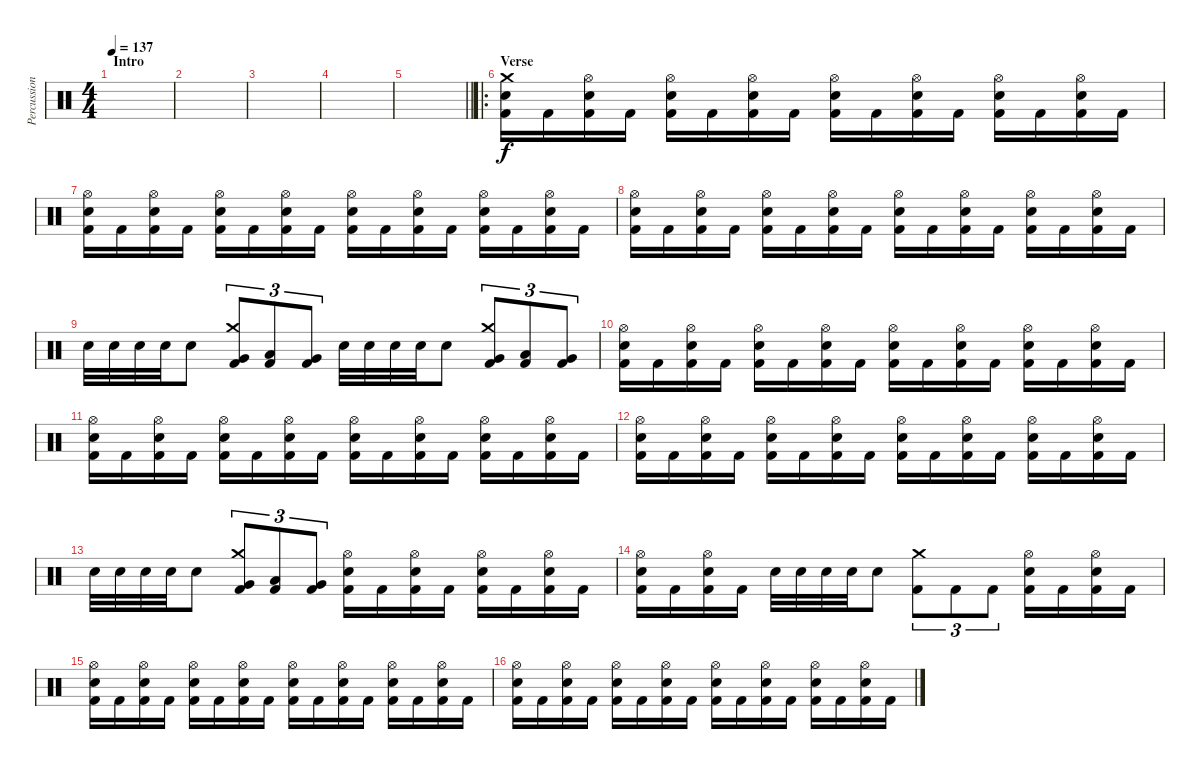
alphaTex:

\track ("Percussion" "Percussion") {instrument percussion}
\staff {score}
\articulation defaults
\ts (4 4)
\section ("" "Intro")
\tempo 137
\clef neutral
\ks c
|
|
|
|
\barLineRight lightlight
|
\ro
\section ("" "Verse")
("Kick (hit) 2" "Snare (hit) 2" "Crash medium (hit)").16{volume 12} "Kick (hit) 2".16 ("Kick (hit) 2" "Hi-Hat (open)" "Snare (hit) 2").16 "Kick (hit) 2".16 ("Kick (hit) 2" "Hi-Hat (open)" "Snare (hit) 2").16 "Kick (hit) 2".16 ("Kick (hit) 2" "Hi-Hat (open)" "Snare (hit) 2").16 "Kick (hit) 2".16 ("Kick (hit) 2" "Hi-Hat (open)" "Snare (hit) 2").16 "Kick (hit) 2".16 ("Kick (hit) 2" "Hi-Hat (open)" "Snare (hit) 2").16 "Kick (hit) 2".16 ("Kick (hit) 2" "Hi-Hat (open)" "Snare (hit) 2").16 "Kick (hit) 2".16 ("Kick (hit) 2" "Hi-Hat (open)" "Snare (hit) 2").16 "Kick (hit) 2".16 |
("Kick (hit) 2" "Hi-Hat (open)" "Snare (hit) 2").16 "Kick (hit) 2".16 ("Kick (hit) 2" "Hi-Hat (open)" "Snare (hit) 2").16 "Kick (hit) 2".16 ("Kick (hit) 2" "Hi-Hat (open)" "Snare (hit) 2").16 "Kick (hit) 2".16 ("Kick (hit) 2" "Hi-Hat (open)" "Snare (hit) 2").16 "Kick (hit) 2".16 ("Kick (hit) 2" "Hi-Hat (open)" "Snare (hit) 2").16 "Kick (hit) 2".16 ("Kick (hit) 2" "Hi-Hat (open)" "Snare (hit) 2").16 "Kick (hit) 2".16 ("Kick (hit) 2" "Hi-Hat (open)" "Snare (hit) 2").16 "Kick (hit) 2".16 ("Kick (hit) 2" "Hi-Hat (open)" "Snare (hit) 2").16 "Kick (hit) 2".16 |
("Kick (hit) 2" "Hi-Hat (open)" "Snare (hit) 2").16 "Kick (hit) 2".16 ("Kick (hit) 2" "Hi-Hat (open)" "Snare (hit) 2").16 "Kick (hit) 2".16 ("Kick (hit) 2" "Hi-Hat (open)" "Snare (hit) 2").16 "Kick (hit) 2".16 ("Kick (hit) 2" "Hi-Hat (open)" "Snare (hit) 2").16 "Kick (hit) 2".16 ("Kick (hit) 2" "Hi-Hat (open)" "Snare (hit) 2").16 "Kick (hit) 2".16 ("Kick (hit) 2" "Hi-Hat (open)" "Snare (hit) 2").16 "Kick (hit) 2".16 ("Kick (hit) 2" "Hi-Hat (open)" "Snare (hit) 2").16 "Kick (hit) 2".16 ("Kick (hit) 2" "Hi-Hat (open)" "Snare (hit) 2").16 "Kick (hit) 2".16 |
"Snare (hit) 2".32 "Snare (hit) 2".32 "Snare (hit) 2".32 "Snare (hit) 2".32 "Snare (hit) 2".8 ("Kick (hit) 2" "Very Low Tom (hit)" "Crash medium (hit)").8{tu (3 2)} ("Kick (hit) 2" "Low Floor Tom (hit)").8{tu (3 2)} ("Kick (hit) 2" "Very Low Tom (hit)").8{tu (3 2)} "Snare (hit) 2".32 "Snare (hit) 2".32 "Snare (hit) 2".32 "Snare (hit) 2".32 "Snare (hit) 2".8 ("Kick (hit) 2" "Very Low Tom (hit)" "Crash medium (hit)").8{tu (3 2)} ("Kick (hit) 2" "Low Floor Tom (hit)").8{tu (3 2)} ("Kick (hit) 2" "Very Low Tom (hit)").8{tu (3 2)} |
("Kick (hit) 2" "Hi-Hat (open)" "Snare (hit) 2").16 "Kick (hit) 2".16 ("Kick (hit) 2" "Hi-Hat (open)" "Snare (hit) 2").16 "Kick (hit) 2".16 ("Kick (hit) 2" "Hi-Hat (open)" "Snare (hit) 2").16 "Kick (hit) 2".16 ("Kick (hit) 2" "Hi-Hat (open)" "Snare (hit) 2").16 "Kick (hit) 2".16 ("Kick (hit) 2" "Hi-Hat (open)" "Snare (hit) 2").16 "Kick (hit) 2".16 ("Kick (hit) 2" "Hi-Hat (open)" "Snare (hit) 2").16 "Kick (hit) 2".16 ("Kick (hit) 2" "Hi-Hat (open)" "Snare (hit) 2").16 "Kick (hit) 2".16 ("Kick (hit) 2" "Hi-Hat (open)" "Snare (hit) 2").16 "Kick (hit) 2".16 |
("Kick (hit) 2" "Hi-Hat (open)" "Snare (hit) 2").16 "Kick (hit) 2".16 ("Kick (hit) 2" "Hi-Hat (open)" "Snare (hit) 2").16 "Kick (hit) 2".16 ("Kick (hit) 2" "Hi-Hat (open)" "Snare (hit) 2").16 "Kick (hit) 2".16 ("Kick (hit) 2" "Hi-Hat (open)" "Snare (hit) 2").16 "Kick (hit) 2".16 ("Kick (hit) 2" "Hi-Hat (open)" "Snare (hit) 2").16 "Kick (hit) 2".16 ("Kick (hit) 2" "Hi-Hat (open)" "Snare (hit) 2").16 "Kick (hit) 2".16 ("Kick (hit) 2" "Hi-Hat (open)" "Snare (hit) 2").16 "Kick (hit) 2".16 ("Kick (hit) 2" "Hi-Hat (open)" "Snare (hit) 2").16 "Kick (hit) 2".16 |
("Kick (hit) 2" "Hi-Hat (open)" "Snare (hit) 2").16 "Kick (hit) 2".16 ("Kick (hit) 2" "Hi-Hat (open)" "Snare (hit) 2").16 "Kick (hit) 2".16 ("Kick (hit) 2" "Hi-Hat (open)" "Snare (hit) 2").16 "Kick (hit) 2".16 ("Kick (hit) 2" "Hi-Hat (open)" "Snare (hit) 2").16 "Kick (hit) 2".16 ("Kick (hit) 2" "Hi-Hat (open)" "Snare (hit) 2").16 "Kick (hit) 2".16 ("Kick (hit) 2" "Hi-Hat (open)" "Snare (hit) 2").16 "Kick (hit) 2".16 ("Kick (hit) 2" "Hi-Hat (open)" "Snare (hit) 2").16 "Kick (hit) 2".16 ("Kick (hit) 2" "Hi-Hat (open)" "Snare (hit) 2").16 "Kick (hit) 2".16 |
"Snare (hit) 2".32 "Snare (hit) 2".32 "Snare (hit) 2".32 "Snare (hit) 2".32 "Snare (hit) 2".8 ("Kick (hit) 2" "Very Low Tom (hit)" "Crash medium (hit)").8{tu (3 2)} ("Kick (hit) 2" "Low Floor Tom (hit)").8{tu (3 2)} ("Kick (hit) 2" "Very Low Tom (hit)").8{tu (3 2)} ("Kick (hit) 2" "Hi-Hat (open)" "Snare (hit) 2").16 "Kick (hit) 2".16 ("Kick (hit) 2" "Hi-Hat (open)" "Snare (hit) 2").16 "Kick (hit) 2".16 ("Kick (hit) 2" "Hi-Hat (open)" "Snare (hit) 2").16 "Kick (hit) 2".16 ("Kick (hit) 2" "Hi-Hat (open)" "Snare (hit) 2").16 "Kick (hit) 2".16 |
("Kick (hit) 2" "Hi-Hat (open)" "Snare (hit) 2").16 "Kick (hit) 2".16 ("Kick (hit) 2" "Hi-Hat (open)" "Snare (hit) 2").16 "Kick (hit) 2".16 "Snare (hit) 2".32 "Snare (hit) 2".32 "Snare (hit) 2".32 "Snare (hit) 2".32 "Snare (hit) 2".8 ("Kick (hit) 2" "Crash medium (hit)").8{tu (3 2)} "Kick (hit) 2".8{tu (3 2)} "Kick (hit) 2".8{tu (3 2)} ("Kick (hit) 2" "Hi-Hat (open)" "Snare (hit) 2").16 "Kick (hit) 2".16 ("Kick (hit) 2" "Hi-Hat (open)" "Snare (hit) 2").16 "Kick (hit) 2".16 |
("Kick (hit) 2" "Hi-Hat (open)" "Snare (hit) 2").16 "Kick (hit) 2".16 ("Kick (hit) 2" "Hi-Hat (open)" "Snare (hit) 2").16 "Kick (hit) 2".16 ("Kick (hit) 2" "Hi-Hat (open)" "Snare (hit) 2").16 "Kick (hit) 2".16 ("Kick (hit) 2" "Hi-Hat (open)" "Snare (hit) 2").16 "Kick (hit) 2".16 ("Kick (hit) 2" "Hi-Hat (open)" "Snare (hit) 2").16 "Kick (hit) 2".16 ("Kick (hit) 2" "Hi-Hat (open)" "Snare (hit) 2").16 "Kick (hit) 2".16 ("Kick (hit) 2" "Hi-Hat (open)" "Snare (hit) 2").16 "Kick (hit) 2".16 ("Kick (hit) 2" "Hi-Hat (open)" "Snare (hit) 2").16 "Kick (hit) 2".16 |
("Kick (hit) 2" "Hi-Hat (open)" "Snare (hit) 2").16 "Kick (hit) 2".16 ("Kick (hit) 2" "Hi-Hat (open)" "Snare (hit) 2").16 "Kick (hit) 2".16 ("Kick (hit) 2" "Hi-Hat (open)" "Snare (hit) 2").16 "Kick (hit) 2".16 ("Kick (hit) 2" "Hi-Hat (open)" "Snare (hit) 2").16 "Kick (hit) 2".16 ("Kick (hit) 2" "Hi-Hat (open)" "Snare (hit) 2").16 "Kick (hit) 2".16 ("Kick (hit) 2" "Hi-Hat (open)" "Snare (hit) 2").16 "Kick (hit) 2".16 ("Kick (hit) 2" "Hi-Hat (open)" "Snare (hit) 2").16 "Kick (hit) 2".16 ("Kick (hit) 2" "Hi-Hat (open)" "Snare (hit) 2").16 "Kick (hit) 2".16
